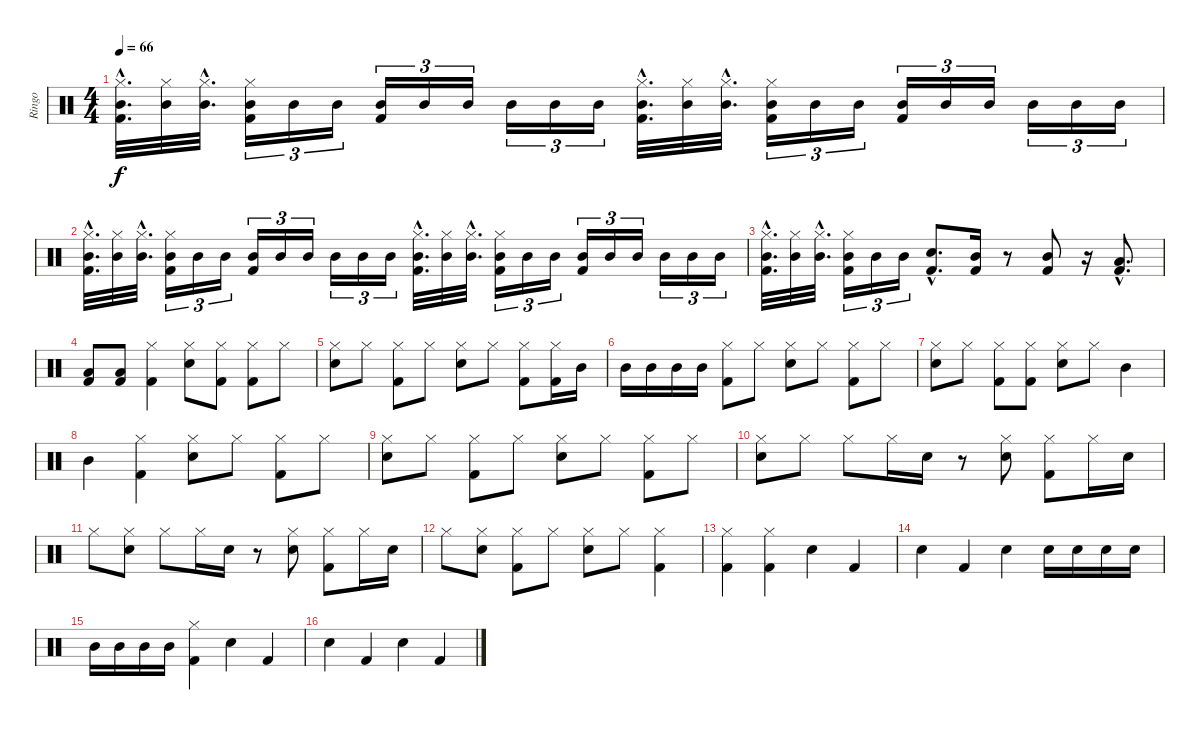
\track ("Ringo" "Ringo") {instrument percussion}
\staff {score}
\articulation defaults
\ts (4 4)
\tempo 66
\clef neutral
\ks c
("Hi-Hat (closed)"{hac} "Mid Tom (hit)"{hac} "Kick (hit) 2"{hac}).32{d dy f} ("Hi-Hat (closed)" "Mid Tom (hit)").32 ("Hi-Hat (closed)"{hac} "Mid Tom (hit)"{hac}).32{d} ("Hi-Hat (closed)" "Mid Tom (hit)" "Kick (hit) 2").16{tu (3 2)} "Mid Tom (hit)".16{tu (3 2)} "Mid Tom (hit)".16{tu (3 2)} ("Mid Tom (hit)" "Kick (hit) 2").16{tu (3 2)} "Mid Tom (hit)".16{tu (3 2)} "Mid Tom (hit)".16{tu (3 2)} "Mid Tom (hit)".16{tu (3 2)} "Mid Tom (hit)".16{tu (3 2)} "Mid Tom (hit)".16{tu (3 2)} ("Hi-Hat (closed)"{hac} "Mid Tom (hit)"{hac} "Kick (hit) 2"{hac}).32{d} ("Hi-Hat (closed)" "Mid Tom (hit)").32 ("Hi-Hat (closed)"{hac} "Mid Tom (hit)"{hac}).32{d} ("Hi-Hat (closed)" "Mid Tom (hit)" "Kick (hit) 2").16{tu (3 2)} "Mid Tom (hit)".16{tu (3 2)} "Mid Tom (hit)".16{tu (3 2)} ("Mid Tom (hit)" "Kick (hit) 2").16{tu (3 2)} "Mid Tom (hit)".16{tu (3 2)} "Mid Tom (hit)".16{tu (3 2)} "Mid Tom (hit)".16{tu (3 2)} "Mid Tom (hit)".16{tu (3 2)} "Mid Tom (hit)".16{tu (3 2)} |
("Hi-Hat (closed)"{hac} "Mid Tom (hit)"{hac} "Kick (hit) 2"{hac}).32{d} ("Hi-Hat (closed)" "Mid Tom (hit)").32 ("Hi-Hat (closed)"{hac} "Mid Tom (hit)"{hac}).32{d} ("Hi-Hat (closed)" "Mid Tom (hit)" "Kick (hit) 2").16{tu (3 2)} "Mid Tom (hit)".16{tu (3 2)} "Mid Tom (hit)".16{tu (3 2)} ("Mid Tom (hit)" "Kick (hit) 2").16{tu (3 2)} "Mid Tom (hit)".16{tu (3 2)} "Mid Tom (hit)".16{tu (3 2)} "Mid Tom (hit)".16{tu (3 2)} "Mid Tom (hit)".16{tu (3 2)} "Mid Tom (hit)".16{tu (3 2)} ("Hi-Hat (closed)"{hac} "Mid Tom (hit)"{hac} "Kick (hit) 2"{hac}).32{d} ("Hi-Hat (closed)" "Mid Tom (hit)").32 ("Hi-Hat (closed)"{hac} "Mid Tom (hit)"{hac}).32{d} ("Hi-Hat (closed)" "Mid Tom (hit)" "Kick (hit) 2").16{tu (3 2)} "Mid Tom (hit)".16{tu (3 2)} "Mid Tom (hit)".16{tu (3 2)} ("Mid Tom (hit)" "Kick (hit) 2").16{tu (3 2)} "Mid Tom (hit)".16{tu (3 2)} "Mid Tom (hit)".16{tu (3 2)} "Mid Tom (hit)".16{tu (3 2)} "Mid Tom (hit)".16{tu (3 2)} "Mid Tom (hit)".16{tu (3 2)} |
("Hi-Hat (closed)"{hac} "Mid Tom (hit)"{hac} "Kick (hit) 2"{hac}).32{d} ("Hi-Hat (closed)" "Mid Tom (hit)").32 ("Hi-Hat (closed)"{hac} "Mid Tom (hit)"{hac}).32{d} ("Hi-Hat (closed)" "Mid Tom (hit)" "Kick (hit) 2").16{tu (3 2)} "Mid Tom (hit)".16{tu (3 2)} "Mid Tom (hit)".16{tu (3 2)} ("Snare (hit) 2"{hac} "Kick (hit) 2"{hac}).8{d} ("Mid Tom (hit)" "Kick (hit) 2").16 r.8 ("Mid Tom (hit)" "Kick (hit) 2").8 r.16 ("Low Floor Tom (hit)"{hac} "Kick (hit) 2"{hac}).8{d} |
("Low Floor Tom (hit)" "Kick (hit) 2").8 ("Low Floor Tom (hit)" "Kick (hit) 2").8 ("Hi-Hat (closed)" "Kick (hit) 2").4 ("Hi-Hat (closed)" "Snare (hit) 2").8 ("Hi-Hat (closed)" "Kick (hit) 2").8 ("Hi-Hat (closed)" "Kick (hit) 2").8 "Hi-Hat (closed)".8 |
("Hi-Hat (closed)" "Snare (hit) 2").8 "Hi-Hat (closed)".8 ("Hi-Hat (closed)" "Kick (hit) 2").8 "Hi-Hat (closed)".8 ("Hi-Hat (closed)" "Snare (hit) 2").8 "Hi-Hat (closed)".8 ("Hi-Hat (closed)" "Kick (hit) 2").8 ("Hi-Hat (closed)" "Kick (hit) 2").16 "Mid Tom (hit)".16 |
"Mid Tom (hit)".16 "Mid Tom (hit)".16 "Mid Tom (hit)".16 "Mid Tom (hit)".16 ("Hi-Hat (closed)" "Kick (hit) 2").8 "Hi-Hat (closed)".8 ("Hi-Hat (closed)" "Snare (hit) 2").8 "Hi-Hat (closed)".8 ("Hi-Hat (closed)" "Kick (hit) 2").8 "Hi-Hat (closed)".8 |
("Hi-Hat (closed)" "Snare (hit) 2").8 "Hi-Hat (closed)".8 ("Hi-Hat (closed)" "Kick (hit) 2").8 ("Hi-Hat (closed)" "Kick (hit) 2").8 ("Hi-Hat (closed)" "Snare (hit) 2").8 "Hi-Hat (closed)".8 "Mid Tom (hit)".4 |
"Mid Tom (hit)".4 ("Hi-Hat (closed)" "Kick (hit) 2").4 ("Hi-Hat (closed)" "Snare (hit) 2").8 "Hi-Hat (closed)".8 ("Hi-Hat (closed)" "Kick (hit) 2").8 "Hi-Hat (closed)".8 |
("Hi-Hat (closed)" "Snare (hit) 2").8 "Hi-Hat (closed)".8 ("Hi-Hat (closed)" "Kick (hit) 2").8 "Hi-Hat (closed)".8 ("Hi-Hat (closed)" "Snare (hit) 2").8 "Hi-Hat (closed)".8 ("Hi-Hat (closed)" "Kick (hit) 2").8 "Hi-Hat (closed)".8 |
("Hi-Hat (closed)" "Snare (hit) 2").8 "Hi-Hat (closed)".8 "Hi-Hat (closed)".8 "Hi-Hat (closed)".16 "Snare (hit) 2".16 r.8 ("Hi-Hat (closed)" "Snare (hit) 2").8 ("Hi-Hat (closed)" "Kick (hit) 2").8 "Hi-Hat (closed)".16 "Snare (hit) 2".16 |
"Hi-Hat (closed)".8 ("Hi-Hat (closed)" "Snare (hit) 2").8 "Hi-Hat (closed)".8 "Hi-Hat (closed)".16 "Snare (hit) 2".16 r.8 ("Hi-Hat (closed)" "Snare (hit) 2").8 ("Hi-Hat (closed)" "Kick (hit) 2").8 "Hi-Hat (closed)".16 "Snare (hit) 2".16 |
"Hi-Hat (closed)".8 ("Hi-Hat (closed)" "Snare (hit) 2").8 ("Hi-Hat (closed)" "Kick (hit) 2").8 "Hi-Hat (closed)".8 ("Hi-Hat (closed)" "Snare (hit) 2").8 "Hi-Hat (closed)".8 ("Hi-Hat (closed)" "Kick (hit) 2").4 |
("Hi-Hat (closed)" "Kick (hit) 2").4 ("Hi-Hat (closed)" "Kick (hit) 2").4 "Snare (hit) 2".4 "Kick (hit) 2".4 |
"Snare (hit) 2".4 "Kick (hit) 2".4 "Snare (hit) 2".4 "Snare (hit) 2".16 "Snare (hit) 2".16 "Snare (hit) 2".16 "Snare (hit) 2".16 |
"Mid Tom (hit)".16 "Mid Tom (hit)".16 "Mid Tom (hit)".16 "Mid Tom (hit)".16 ("Hi-Hat (closed)" "Kick (hit) 2").4 "Snare (hit) 2".4 "Kick (hit) 2".4 |
"Snare (hit) 2".4 "Kick (hit) 2".4 "Snare (hit) 2".4 "Kick (hit) 2".4
